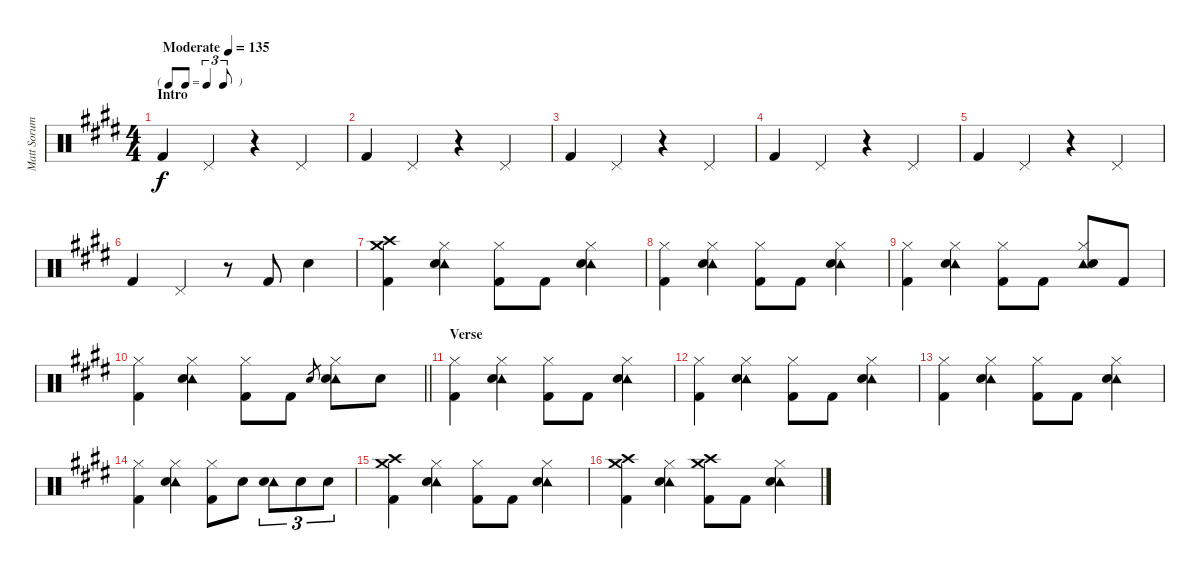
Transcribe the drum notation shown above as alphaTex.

\track ("Matt Sorum - Drums" "Matt Sorum") {instrument percussion}
\staff {score}
\articulation defaults
\ts (4 4)
\tf triplet8th
\section ("" "Intro")
\tempo (135 "Moderate")
\clef neutral
\ks e "Kick (hit) 2".4{dy f} "Pedal Hi-Hat (hit)".4
r.4 "Pedal Hi-Hat (hit)".4 |
"Kick (hit) 2".4 "Pedal Hi-Hat (hit)".4 r.4 "Pedal Hi-Hat (hit)".4 |
"Kick (hit) 2".4 "Pedal Hi-Hat (hit)".4 r.4 "Pedal Hi-Hat (hit)".4 |
"Kick (hit) 2".4 "Pedal Hi-Hat (hit)".4 r.4 "Pedal Hi-Hat (hit)".4 |
"Kick (hit) 2".4 "Pedal Hi-Hat (hit)".4 r.4 "Pedal Hi-Hat (hit)".4 |
"Kick (hit) 2".4 "Pedal Hi-Hat (hit)".4 r.8 "Kick (hit) 2".8 "Snare (hit) 2".4 |
("Crash medium (hit)" "Crash high (hit)" "Kick (hit) 2").4 ("Hi-Hat (closed)" "Tambourine (hit)" "Snare (hit) 2").4 ("Hi-Hat (closed)" "Kick (hit) 2").8 "Kick (hit) 2".8 ("Hi-Hat (closed)" "Tambourine (hit)" "Snare (hit) 2").4 |
("Hi-Hat (closed)" "Kick (hit) 2").4 ("Hi-Hat (closed)" "Tambourine (hit)" "Snare (hit) 2").4 ("Hi-Hat (closed)" "Kick (hit) 2").8 "Kick (hit) 2".8 ("Hi-Hat (closed)" "Tambourine (hit)" "Snare (hit) 2").4 |
("Hi-Hat (closed)" "Kick (hit) 2").4 ("Hi-Hat (closed)" "Tambourine (hit)" "Snare (hit) 2").4 ("Hi-Hat (closed)" "Kick (hit) 2").8 "Kick (hit) 2".8 ("Hi-Hat (closed)" "Tambourine (hit)" "Snare (hit) 2").8 "Kick (hit) 2".8 |
\barLineRight lightlight
("Hi-Hat (closed)" "Kick (hit) 2").4 ("Hi-Hat (closed)" "Tambourine (hit)" "Snare (hit) 2").4 ("Hi-Hat (closed)" "Kick (hit) 2").8 "Kick (hit) 2".8 "Snare (hit) 2".8{gr} ("Hi-Hat (closed)" "Tambourine (hit)" "Snare (hit) 2").8 "Snare (hit) 2".8 |
\section ("" "Verse")
("Hi-Hat (closed)" "Kick (hit) 2").4 ("Hi-Hat (closed)" "Tambourine (hit)" "Snare (hit) 2").4 ("Hi-Hat (closed)" "Kick (hit) 2").8 "Kick (hit) 2".8 ("Hi-Hat (closed)" "Tambourine (hit)" "Snare (hit) 2").4 |
("Hi-Hat (closed)" "Kick (hit) 2").4 ("Hi-Hat (closed)" "Tambourine (hit)" "Snare (hit) 2").4 ("Hi-Hat (closed)" "Kick (hit) 2").8 "Kick (hit) 2".8 ("Hi-Hat (closed)" "Tambourine (hit)" "Snare (hit) 2").4 |
("Hi-Hat (closed)" "Kick (hit) 2").4 ("Hi-Hat (closed)" "Tambourine (hit)" "Snare (hit) 2").4 ("Hi-Hat (closed)" "Kick (hit) 2").8 "Kick (hit) 2".8 ("Hi-Hat (closed)" "Tambourine (hit)" "Snare (hit) 2").4 |
("Hi-Hat (closed)" "Kick (hit) 2").4 ("Hi-Hat (closed)" "Tambourine (hit)" "Snare (hit) 2").4 ("Hi-Hat (closed)" "Kick (hit) 2").8 "Snare (hit) 2".8 ("Tambourine (hit)" "Snare (hit) 2").8{tu (3 2)} "Snare (hit) 2".8{tu (3 2)} "Snare (hit) 2".8{tu (3 2)} |
("Crash medium (hit)" "Crash high (hit)" "Kick (hit) 2").4 ("Hi-Hat (closed)" "Tambourine (hit)" "Snare (hit) 2").4 ("Hi-Hat (closed)" "Kick (hit) 2").8 "Kick (hit) 2".8 ("Hi-Hat (closed)" "Tambourine (hit)" "Snare (hit) 2").4 |
("Crash medium (hit)" "Crash high (hit)" "Kick (hit) 2").4 ("Hi-Hat (closed)" "Tambourine (hit)" "Snare (hit) 2").4 ("Crash high (hit)" "Crash medium (hit)" "Kick (hit) 2").8 "Kick (hit) 2".8 ("Hi-Hat (closed)" "Tambourine (hit)" "Snare (hit) 2").4
